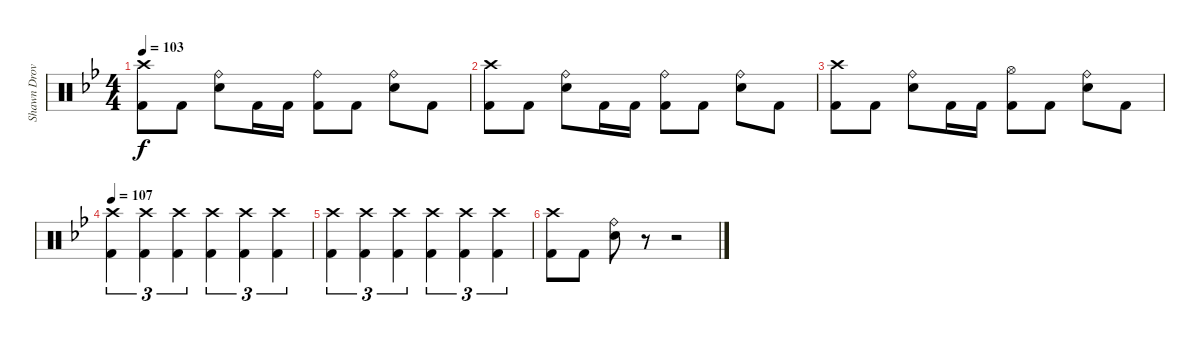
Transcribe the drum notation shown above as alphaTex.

\track ("Shawn Drover" "Shawn Drov") {instrument percussion}
\staff {score}
\articulation defaults
\ts (4 4)
\tempo 103
\clef neutral
\ks bb
("Crash high (hit)" "Kick (hit) 2").8{dy f} "Kick (hit) 2".8 ("Ride (bell)" "Snare (hit) 2").8 "Kick (hit) 2".16 "Kick (hit) 2".16 ("Ride (bell)" "Kick (hit) 2").8 "Kick (hit) 2".8 ("Ride (bell)" "Snare (hit) 2").8 "Kick (hit) 2".8 |
("Crash high (hit)" "Kick (hit) 2").8 "Kick (hit) 2".8 ("Ride (bell)" "Snare (hit) 2").8 "Kick (hit) 2".16 "Kick (hit) 2".16 ("Ride (bell)" "Kick (hit) 2").8 "Kick (hit) 2".8 ("Ride (bell)" "Snare (hit) 2").8 "Kick (hit) 2".8 |
("Crash high (hit)" "Kick (hit) 2").8 "Kick (hit) 2".8 ("Ride (bell)" "Snare (hit) 2").8 "Kick (hit) 2".16 "Kick (hit) 2".16 ("Hi-Hat (open)" "Kick (hit) 2").8 "Kick (hit) 2".8 ("Ride (bell)" "Snare (hit) 2").8 "Kick (hit) 2".8 |
\tempo 107
("Crash high (hit)" "Kick (hit) 2").4{tu (3 2)} ("Crash high (hit)" "Kick (hit) 2").4{tu (3 2)} ("Crash high (hit)" "Kick (hit) 2").4{tu (3 2)} ("Crash high (hit)" "Kick (hit) 2").4{tu (3 2)} ("Crash high (hit)" "Kick (hit) 2").4{tu (3 2)} ("Crash high (hit)" "Kick (hit) 2").4{tu (3 2)} |
("Crash high (hit)" "Kick (hit) 2").4{tu (3 2)} ("Crash high (hit)" "Kick (hit) 2").4{tu (3 2)} ("Crash high (hit)" "Kick (hit) 2").4{tu (3 2)} ("Crash high (hit)" "Kick (hit) 2").4{tu (3 2)} ("Crash high (hit)" "Kick (hit) 2").4{tu (3 2)} ("Crash high (hit)" "Kick (hit) 2").4{tu (3 2)} |
("Crash high (hit)" "Kick (hit) 2").8 "Kick (hit) 2".8 ("Ride (bell)" "Snare (hit) 2").8 r.8 r.2
